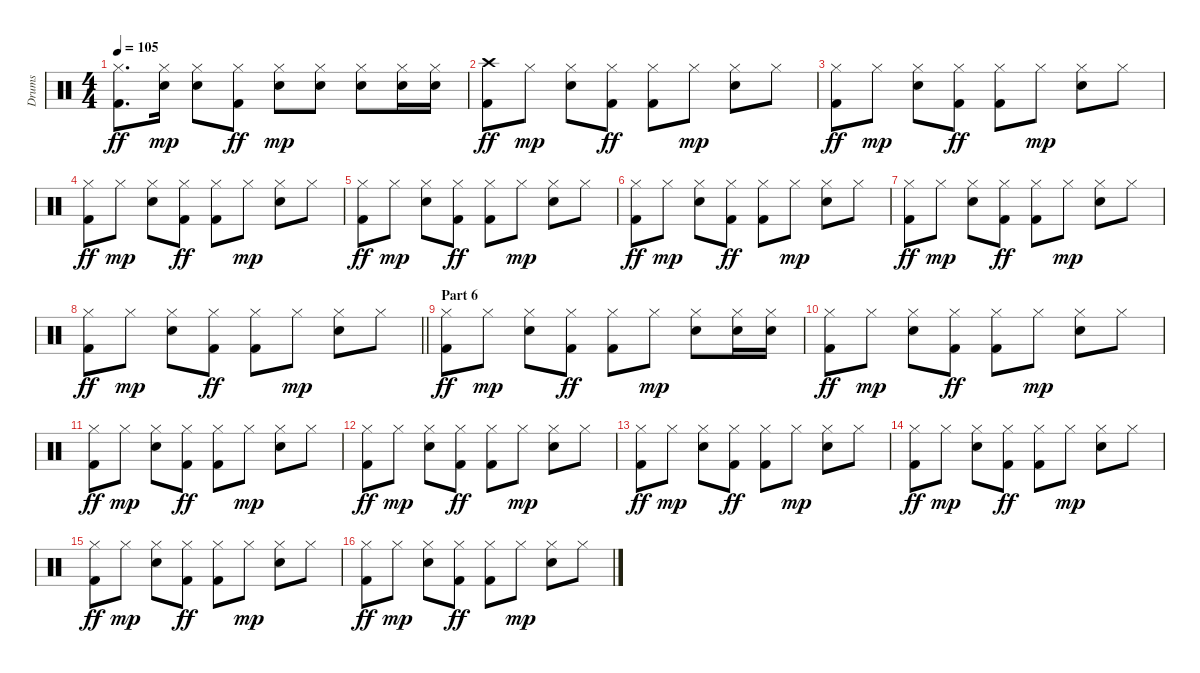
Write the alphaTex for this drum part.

\track ("Drums" "Drums") {instrument percussion}
\staff {score}
\articulation defaults
\ts (4 4)
\tempo 105
\clef neutral
\ks c
("Hi-Hat (closed)" "Kick (hit) 2").8{d dy ff} ("Hi-Hat (closed)" "Electric Snare (hit)").16{dy mp} ("Hi-Hat (closed)" "Electric Snare (hit)").8 ("Hi-Hat (closed)" "Kick (hit) 2").8{dy ff} ("Hi-Hat (closed)" "Electric Snare (hit)").8{dy mp} ("Hi-Hat (closed)" "Electric Snare (hit)").8 ("Hi-Hat (closed)" "Electric Snare (hit)").8 ("Hi-Hat (closed)" "Electric Snare (hit)").16 ("Hi-Hat (closed)" "Electric Snare (hit)").16 |
("Crash high (hit)" "Kick (hit) 2").8{dy ff} "Hi-Hat (closed)".8{dy mp} ("Hi-Hat (closed)" "Electric Snare (hit)").8 ("Hi-Hat (closed)" "Kick (hit) 2").8{dy ff} ("Hi-Hat (closed)" "Kick (hit) 2").8 "Hi-Hat (closed)".8{dy mp} ("Hi-Hat (closed)" "Electric Snare (hit)").8 "Hi-Hat (closed)".8 |
("Hi-Hat (closed)" "Kick (hit) 2").8{dy ff} "Hi-Hat (closed)".8{dy mp} ("Hi-Hat (closed)" "Electric Snare (hit)").8 ("Hi-Hat (closed)" "Kick (hit) 2").8{dy ff} ("Hi-Hat (closed)" "Kick (hit) 2").8 "Hi-Hat (closed)".8{dy mp} ("Hi-Hat (closed)" "Electric Snare (hit)").8 "Hi-Hat (closed)".8 |
("Hi-Hat (closed)" "Kick (hit) 2").8{dy ff} "Hi-Hat (closed)".8{dy mp} ("Hi-Hat (closed)" "Electric Snare (hit)").8 ("Hi-Hat (closed)" "Kick (hit) 2").8{dy ff} ("Hi-Hat (closed)" "Kick (hit) 2").8 "Hi-Hat (closed)".8{dy mp} ("Hi-Hat (closed)" "Electric Snare (hit)").8 "Hi-Hat (closed)".8 |
("Hi-Hat (closed)" "Kick (hit) 2").8{dy ff} "Hi-Hat (closed)".8{dy mp} ("Hi-Hat (closed)" "Electric Snare (hit)").8 ("Hi-Hat (closed)" "Kick (hit) 2").8{dy ff} ("Hi-Hat (closed)" "Kick (hit) 2").8 "Hi-Hat (closed)".8{dy mp} ("Hi-Hat (closed)" "Electric Snare (hit)").8 "Hi-Hat (closed)".8 |
("Hi-Hat (closed)" "Kick (hit) 2").8{dy ff} "Hi-Hat (closed)".8{dy mp} ("Hi-Hat (closed)" "Electric Snare (hit)").8 ("Hi-Hat (closed)" "Kick (hit) 2").8{dy ff} ("Hi-Hat (closed)" "Kick (hit) 2").8 "Hi-Hat (closed)".8{dy mp} ("Hi-Hat (closed)" "Electric Snare (hit)").8 "Hi-Hat (closed)".8 |
("Hi-Hat (closed)" "Kick (hit) 2").8{dy ff} "Hi-Hat (closed)".8{dy mp} ("Hi-Hat (closed)" "Electric Snare (hit)").8 ("Hi-Hat (closed)" "Kick (hit) 2").8{dy ff} ("Hi-Hat (closed)" "Kick (hit) 2").8 "Hi-Hat (closed)".8{dy mp} ("Hi-Hat (closed)" "Electric Snare (hit)").8 "Hi-Hat (closed)".8 |
\barLineRight lightlight
("Hi-Hat (closed)" "Kick (hit) 2").8{dy ff} "Hi-Hat (closed)".8{dy mp} ("Hi-Hat (closed)" "Electric Snare (hit)").8 ("Hi-Hat (closed)" "Kick (hit) 2").8{dy ff} ("Hi-Hat (closed)" "Kick (hit) 2").8 "Hi-Hat (closed)".8{dy mp} ("Hi-Hat (closed)" "Electric Snare (hit)").8 "Hi-Hat (closed)".8 |
\section ("" "Part 6")
("Hi-Hat (closed)" "Kick (hit) 2").8{dy ff} "Hi-Hat (closed)".8{dy mp} ("Hi-Hat (closed)" "Electric Snare (hit)").8 ("Hi-Hat (closed)" "Kick (hit) 2").8{dy ff} ("Hi-Hat (closed)" "Kick (hit) 2").8 "Hi-Hat (closed)".8{dy mp} ("Hi-Hat (closed)" "Electric Snare (hit)").8 ("Hi-Hat (closed)" "Electric Snare (hit)").16 ("Hi-Hat (closed)" "Electric Snare (hit)").16 |
("Hi-Hat (closed)" "Kick (hit) 2").8{dy ff} "Hi-Hat (closed)".8{dy mp} ("Hi-Hat (closed)" "Electric Snare (hit)").8 ("Hi-Hat (closed)" "Kick (hit) 2").8{dy ff} ("Hi-Hat (closed)" "Kick (hit) 2").8 "Hi-Hat (closed)".8{dy mp} ("Hi-Hat (closed)" "Electric Snare (hit)").8 "Hi-Hat (closed)".8 |
("Hi-Hat (closed)" "Kick (hit) 2").8{dy ff} "Hi-Hat (closed)".8{dy mp} ("Hi-Hat (closed)" "Electric Snare (hit)").8 ("Hi-Hat (closed)" "Kick (hit) 2").8{dy ff} ("Hi-Hat (closed)" "Kick (hit) 2").8 "Hi-Hat (closed)".8{dy mp} ("Hi-Hat (closed)" "Electric Snare (hit)").8 "Hi-Hat (closed)".8 |
("Hi-Hat (closed)" "Kick (hit) 2").8{dy ff} "Hi-Hat (closed)".8{dy mp} ("Hi-Hat (closed)" "Electric Snare (hit)").8 ("Hi-Hat (closed)" "Kick (hit) 2").8{dy ff} ("Hi-Hat (closed)" "Kick (hit) 2").8 "Hi-Hat (closed)".8{dy mp} ("Hi-Hat (closed)" "Electric Snare (hit)").8 "Hi-Hat (closed)".8 |
("Hi-Hat (closed)" "Kick (hit) 2").8{dy ff} "Hi-Hat (closed)".8{dy mp} ("Hi-Hat (closed)" "Electric Snare (hit)").8 ("Hi-Hat (closed)" "Kick (hit) 2").8{dy ff} ("Hi-Hat (closed)" "Kick (hit) 2").8 "Hi-Hat (closed)".8{dy mp} ("Hi-Hat (closed)" "Electric Snare (hit)").8 "Hi-Hat (closed)".8 |
("Hi-Hat (closed)" "Kick (hit) 2").8{dy ff} "Hi-Hat (closed)".8{dy mp} ("Hi-Hat (closed)" "Electric Snare (hit)").8 ("Hi-Hat (closed)" "Kick (hit) 2").8{dy ff} ("Hi-Hat (closed)" "Kick (hit) 2").8 "Hi-Hat (closed)".8{dy mp} ("Hi-Hat (closed)" "Electric Snare (hit)").8 "Hi-Hat (closed)".8 |
("Hi-Hat (closed)" "Kick (hit) 2").8{dy ff} "Hi-Hat (closed)".8{dy mp} ("Hi-Hat (closed)" "Electric Snare (hit)").8 ("Hi-Hat (closed)" "Kick (hit) 2").8{dy ff} ("Hi-Hat (closed)" "Kick (hit) 2").8 "Hi-Hat (closed)".8{dy mp} ("Hi-Hat (closed)" "Electric Snare (hit)").8 "Hi-Hat (closed)".8 |
("Hi-Hat (closed)" "Kick (hit) 2").8{dy ff} "Hi-Hat (closed)".8{dy mp} ("Hi-Hat (closed)" "Electric Snare (hit)").8 ("Hi-Hat (closed)" "Kick (hit) 2").8{dy ff} ("Hi-Hat (closed)" "Kick (hit) 2").8 "Hi-Hat (closed)".8{dy mp} ("Hi-Hat (closed)" "Electric Snare (hit)").8 "Hi-Hat (closed)".8
